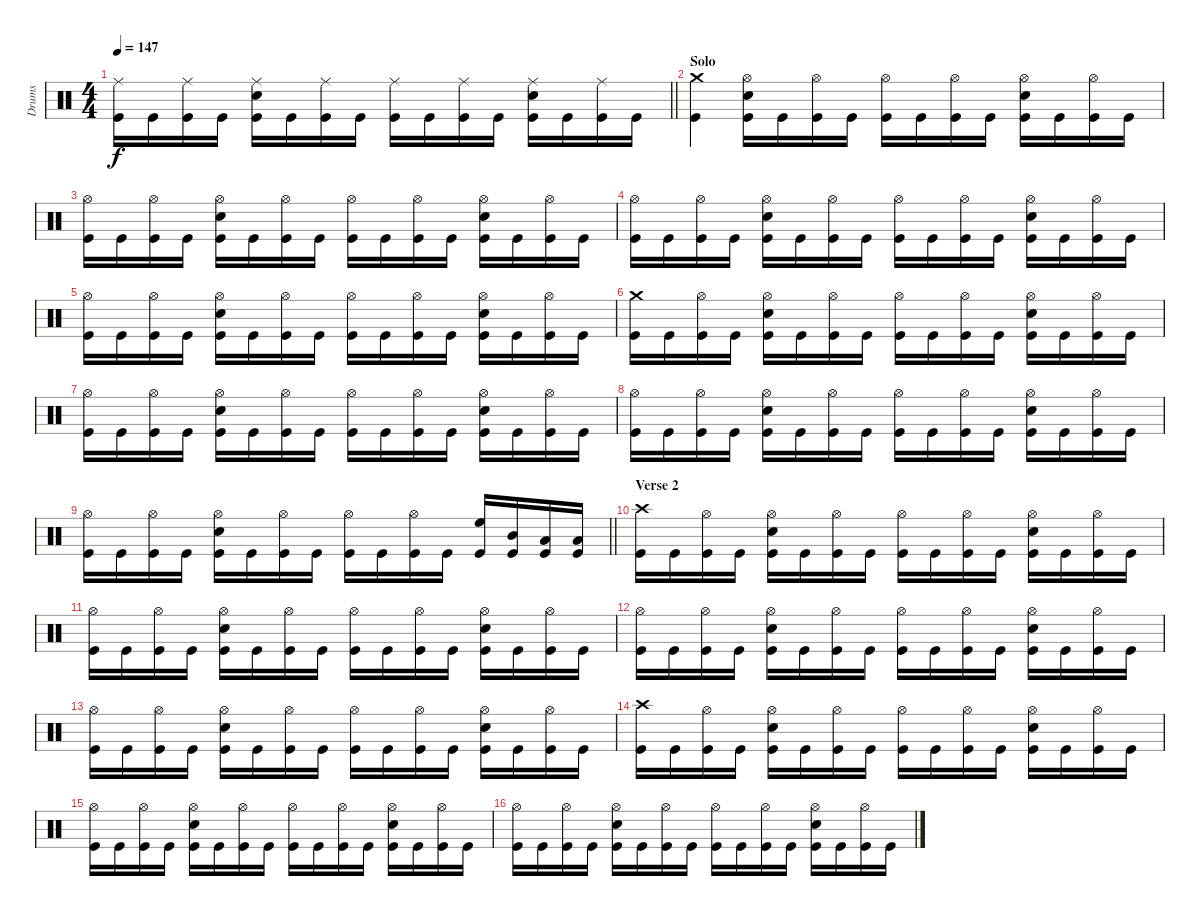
\track ("Drums" "Drums") {instrument percussion}
\staff {score}
\articulation defaults
\ts (4 4)
\tempo 147
\clef neutral
\barLineRight lightlight
\ks c
("Ride (middle)" "Kick (hit)").16{dy f} "Kick (hit)".16 ("Ride (middle)" "Kick (hit)").16 "Kick (hit)".16 ("Electric Snare (hit)" "Ride (middle)" "Kick (hit)").16 "Kick (hit)".16 ("Ride (middle)" "Kick (hit)").16 "Kick (hit)".16 ("Ride (middle)" "Kick (hit)").16 "Kick (hit)".16 ("Ride (middle)" "Kick (hit)").16 "Kick (hit)".16 ("Electric Snare (hit)" "Ride (middle)" "Kick (hit)").16 "Kick (hit)".16 ("Ride (middle)" "Kick (hit)").16 "Kick (hit)".16 |
\section ("" "Solo")
("Crash medium (hit)" "Kick (hit)").4 ("Electric Snare (hit)" "Hi-Hat (open)" "Kick (hit)").16 "Kick (hit)".16 ("Hi-Hat (open)" "Kick (hit)").16 "Kick (hit)".16 ("Hi-Hat (open)" "Kick (hit)").16 "Kick (hit)".16 ("Hi-Hat (open)" "Kick (hit)").16 "Kick (hit)".16 ("Electric Snare (hit)" "Hi-Hat (open)" "Kick (hit)").16 "Kick (hit)".16 ("Hi-Hat (open)" "Kick (hit)").16 "Kick (hit)".16 |
("Hi-Hat (open)" "Kick (hit)").16 "Kick (hit)".16 ("Hi-Hat (open)" "Kick (hit)").16 "Kick (hit)".16 ("Electric Snare (hit)" "Hi-Hat (open)" "Kick (hit)").16 "Kick (hit)".16 ("Hi-Hat (open)" "Kick (hit)").16 "Kick (hit)".16 ("Hi-Hat (open)" "Kick (hit)").16 "Kick (hit)".16 ("Hi-Hat (open)" "Kick (hit)").16 "Kick (hit)".16 ("Electric Snare (hit)" "Hi-Hat (open)" "Kick (hit)").16 "Kick (hit)".16 ("Hi-Hat (open)" "Kick (hit)").16 "Kick (hit)".16 |
("Hi-Hat (open)" "Kick (hit)").16 "Kick (hit)".16 ("Hi-Hat (open)" "Kick (hit)").16 "Kick (hit)".16 ("Electric Snare (hit)" "Hi-Hat (open)" "Kick (hit)").16 "Kick (hit)".16 ("Hi-Hat (open)" "Kick (hit)").16 "Kick (hit)".16 ("Hi-Hat (open)" "Kick (hit)").16 "Kick (hit)".16 ("Hi-Hat (open)" "Kick (hit)").16 "Kick (hit)".16 ("Electric Snare (hit)" "Hi-Hat (open)" "Kick (hit)").16 "Kick (hit)".16 ("Hi-Hat (open)" "Kick (hit)").16 "Kick (hit)".16 |
("Hi-Hat (open)" "Kick (hit)").16 "Kick (hit)".16 ("Hi-Hat (open)" "Kick (hit)").16 "Kick (hit)".16 ("Electric Snare (hit)" "Hi-Hat (open)" "Kick (hit)").16 "Kick (hit)".16 ("Hi-Hat (open)" "Kick (hit)").16 "Kick (hit)".16 ("Hi-Hat (open)" "Kick (hit)").16 "Kick (hit)".16 ("Hi-Hat (open)" "Kick (hit)").16 "Kick (hit)".16 ("Electric Snare (hit)" "Hi-Hat (open)" "Kick (hit)").16 "Kick (hit)".16 ("Hi-Hat (open)" "Kick (hit)").16 "Kick (hit)".16 |
("Crash medium (hit)" "Kick (hit)").16 "Kick (hit)".16 ("Hi-Hat (open)" "Kick (hit)").16 "Kick (hit)".16 ("Electric Snare (hit)" "Hi-Hat (open)" "Kick (hit)").16 "Kick (hit)".16 ("Hi-Hat (open)" "Kick (hit)").16 "Kick (hit)".16 ("Hi-Hat (open)" "Kick (hit)").16 "Kick (hit)".16 ("Hi-Hat (open)" "Kick (hit)").16 "Kick (hit)".16 ("Electric Snare (hit)" "Hi-Hat (open)" "Kick (hit)").16 "Kick (hit)".16 ("Hi-Hat (open)" "Kick (hit)").16 "Kick (hit)".16 |
("Hi-Hat (open)" "Kick (hit)").16 "Kick (hit)".16 ("Hi-Hat (open)" "Kick (hit)").16 "Kick (hit)".16 ("Electric Snare (hit)" "Hi-Hat (open)" "Kick (hit)").16 "Kick (hit)".16 ("Hi-Hat (open)" "Kick (hit)").16 "Kick (hit)".16 ("Hi-Hat (open)" "Kick (hit)").16 "Kick (hit)".16 ("Hi-Hat (open)" "Kick (hit)").16 "Kick (hit)".16 ("Electric Snare (hit)" "Hi-Hat (open)" "Kick (hit)").16 "Kick (hit)".16 ("Hi-Hat (open)" "Kick (hit)").16 "Kick (hit)".16 |
("Hi-Hat (open)" "Kick (hit)").16 "Kick (hit)".16 ("Hi-Hat (open)" "Kick (hit)").16 "Kick (hit)".16 ("Electric Snare (hit)" "Hi-Hat (open)" "Kick (hit)").16 "Kick (hit)".16 ("Hi-Hat (open)" "Kick (hit)").16 "Kick (hit)".16 ("Hi-Hat (open)" "Kick (hit)").16 "Kick (hit)".16 ("Hi-Hat (open)" "Kick (hit)").16 "Kick (hit)".16 ("Electric Snare (hit)" "Hi-Hat (open)" "Kick (hit)").16 "Kick (hit)".16 ("Hi-Hat (open)" "Kick (hit)").16 "Kick (hit)".16 |
\barLineRight lightlight
("Hi-Hat (open)" "Kick (hit)").16 "Kick (hit)".16 ("Hi-Hat (open)" "Kick (hit)").16 "Kick (hit)".16 ("Electric Snare (hit)" "Hi-Hat (open)" "Kick (hit)").16 "Kick (hit)".16 ("Hi-Hat (open)" "Kick (hit)").16 "Kick (hit)".16 ("Hi-Hat (open)" "Kick (hit)").16 "Kick (hit)".16 ("Hi-Hat (open)" "Kick (hit)").16 "Kick (hit)".16 ("High Floor Tom (hit)" "Kick (hit)").16 ("Mid Tom (hit)" "Kick (hit)").16 ("Low Tom (hit)" "Kick (hit)").16 ("Low Floor Tom (hit)" "Kick (hit)").16 |
\section ("" "Verse 2")
("Crash high (hit)" "Kick (hit)").16 "Kick (hit)".16 ("Hi-Hat (open)" "Kick (hit)").16 "Kick (hit)".16 ("Electric Snare (hit)" "Hi-Hat (open)" "Kick (hit)").16 "Kick (hit)".16 ("Hi-Hat (open)" "Kick (hit)").16 "Kick (hit)".16 ("Hi-Hat (open)" "Kick (hit)").16 "Kick (hit)".16 ("Hi-Hat (open)" "Kick (hit)").16 "Kick (hit)".16 ("Electric Snare (hit)" "Hi-Hat (open)" "Kick (hit)").16 "Kick (hit)".16 ("Hi-Hat (open)" "Kick (hit)").16 "Kick (hit)".16 |
("Hi-Hat (open)" "Kick (hit)").16 "Kick (hit)".16 ("Hi-Hat (open)" "Kick (hit)").16 "Kick (hit)".16 ("Electric Snare (hit)" "Hi-Hat (open)" "Kick (hit)").16 "Kick (hit)".16 ("Hi-Hat (open)" "Kick (hit)").16 "Kick (hit)".16 ("Hi-Hat (open)" "Kick (hit)").16 "Kick (hit)".16 ("Hi-Hat (open)" "Kick (hit)").16 "Kick (hit)".16 ("Electric Snare (hit)" "Hi-Hat (open)" "Kick (hit)").16 "Kick (hit)".16 ("Hi-Hat (open)" "Kick (hit)").16 "Kick (hit)".16 |
("Hi-Hat (open)" "Kick (hit)").16 "Kick (hit)".16 ("Hi-Hat (open)" "Kick (hit)").16 "Kick (hit)".16 ("Electric Snare (hit)" "Hi-Hat (open)" "Kick (hit)").16 "Kick (hit)".16 ("Hi-Hat (open)" "Kick (hit)").16 "Kick (hit)".16 ("Hi-Hat (open)" "Kick (hit)").16 "Kick (hit)".16 ("Hi-Hat (open)" "Kick (hit)").16 "Kick (hit)".16 ("Electric Snare (hit)" "Hi-Hat (open)" "Kick (hit)").16 "Kick (hit)".16 ("Hi-Hat (open)" "Kick (hit)").16 "Kick (hit)".16 |
("Hi-Hat (open)" "Kick (hit)").16 "Kick (hit)".16 ("Hi-Hat (open)" "Kick (hit)").16 "Kick (hit)".16 ("Electric Snare (hit)" "Hi-Hat (open)" "Kick (hit)").16 "Kick (hit)".16 ("Hi-Hat (open)" "Kick (hit)").16 "Kick (hit)".16 ("Hi-Hat (open)" "Kick (hit)").16 "Kick (hit)".16 ("Hi-Hat (open)" "Kick (hit)").16 "Kick (hit)".16 ("Electric Snare (hit)" "Hi-Hat (open)" "Kick (hit)").16 "Kick (hit)".16 ("Hi-Hat (open)" "Kick (hit)").16 "Kick (hit)".16 |
("Crash high (hit)" "Kick (hit)").16 "Kick (hit)".16 ("Hi-Hat (open)" "Kick (hit)").16 "Kick (hit)".16 ("Electric Snare (hit)" "Hi-Hat (open)" "Kick (hit)").16 "Kick (hit)".16 ("Hi-Hat (open)" "Kick (hit)").16 "Kick (hit)".16 ("Hi-Hat (open)" "Kick (hit)").16 "Kick (hit)".16 ("Hi-Hat (open)" "Kick (hit)").16 "Kick (hit)".16 ("Electric Snare (hit)" "Hi-Hat (open)" "Kick (hit)").16 "Kick (hit)".16 ("Hi-Hat (open)" "Kick (hit)").16 "Kick (hit)".16 |
("Hi-Hat (open)" "Kick (hit)").16 "Kick (hit)".16 ("Hi-Hat (open)" "Kick (hit)").16 "Kick (hit)".16 ("Electric Snare (hit)" "Hi-Hat (open)" "Kick (hit)").16 "Kick (hit)".16 ("Hi-Hat (open)" "Kick (hit)").16 "Kick (hit)".16 ("Hi-Hat (open)" "Kick (hit)").16 "Kick (hit)".16 ("Hi-Hat (open)" "Kick (hit)").16 "Kick (hit)".16 ("Electric Snare (hit)" "Hi-Hat (open)" "Kick (hit)").16 "Kick (hit)".16 ("Hi-Hat (open)" "Kick (hit)").16 "Kick (hit)".16 |
("Hi-Hat (open)" "Kick (hit)").16 "Kick (hit)".16 ("Hi-Hat (open)" "Kick (hit)").16 "Kick (hit)".16 ("Electric Snare (hit)" "Hi-Hat (open)" "Kick (hit)").16 "Kick (hit)".16 ("Hi-Hat (open)" "Kick (hit)").16 "Kick (hit)".16 ("Hi-Hat (open)" "Kick (hit)").16 "Kick (hit)".16 ("Hi-Hat (open)" "Kick (hit)").16 "Kick (hit)".16 ("Electric Snare (hit)" "Hi-Hat (open)" "Kick (hit)").16 "Kick (hit)".16 ("Hi-Hat (open)" "Kick (hit)").16 "Kick (hit)".16
